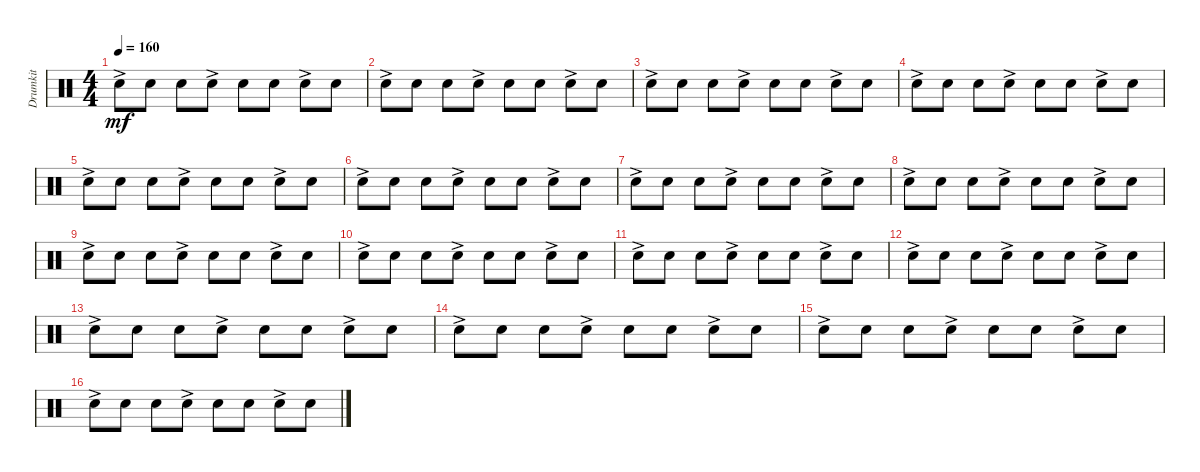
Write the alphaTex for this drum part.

\track ("Drumkit" "Drumkit") {instrument percussion}
\staff {score}
\articulation defaults
\ts (4 4)
\tempo 160
\clef neutral
\ks c "Snare (hit) 2"{ac}.8{dy mf} "Snare (hit) 2".8 "Snare (hit) 2".8 "Snare (hit) 2"{ac}.8 "Snare (hit) 2".8 "Snare (hit) 2".8 "Snare (hit) 2"{ac}.8 "Snare (hit) 2".8
|
"Snare (hit) 2"{ac}.8 "Snare (hit) 2".8 "Snare (hit) 2".8 "Snare (hit) 2"{ac}.8 "Snare (hit) 2".8 "Snare (hit) 2".8 "Snare (hit) 2"{ac}.8 "Snare (hit) 2".8 |
"Snare (hit) 2"{ac}.8 "Snare (hit) 2".8 "Snare (hit) 2".8 "Snare (hit) 2"{ac}.8 "Snare (hit) 2".8 "Snare (hit) 2".8 "Snare (hit) 2"{ac}.8 "Snare (hit) 2".8 |
"Snare (hit) 2"{ac}.8 "Snare (hit) 2".8 "Snare (hit) 2".8 "Snare (hit) 2"{ac}.8 "Snare (hit) 2".8 "Snare (hit) 2".8 "Snare (hit) 2"{ac}.8 "Snare (hit) 2".8 |
"Snare (hit) 2"{ac}.8 "Snare (hit) 2".8 "Snare (hit) 2".8 "Snare (hit) 2"{ac}.8 "Snare (hit) 2".8 "Snare (hit) 2".8 "Snare (hit) 2"{ac}.8 "Snare (hit) 2".8 |
"Snare (hit) 2"{ac}.8 "Snare (hit) 2".8 "Snare (hit) 2".8 "Snare (hit) 2"{ac}.8 "Snare (hit) 2".8 "Snare (hit) 2".8 "Snare (hit) 2"{ac}.8 "Snare (hit) 2".8 |
"Snare (hit) 2"{ac}.8 "Snare (hit) 2".8 "Snare (hit) 2".8 "Snare (hit) 2"{ac}.8 "Snare (hit) 2".8 "Snare (hit) 2".8 "Snare (hit) 2"{ac}.8 "Snare (hit) 2".8 |
"Snare (hit) 2"{ac}.8 "Snare (hit) 2".8 "Snare (hit) 2".8 "Snare (hit) 2"{ac}.8 "Snare (hit) 2".8 "Snare (hit) 2".8 "Snare (hit) 2"{ac}.8 "Snare (hit) 2".8 |
"Snare (hit) 2"{ac}.8 "Snare (hit) 2".8 "Snare (hit) 2".8 "Snare (hit) 2"{ac}.8 "Snare (hit) 2".8 "Snare (hit) 2".8 "Snare (hit) 2"{ac}.8 "Snare (hit) 2".8 |
"Snare (hit) 2"{ac}.8 "Snare (hit) 2".8 "Snare (hit) 2".8 "Snare (hit) 2"{ac}.8 "Snare (hit) 2".8 "Snare (hit) 2".8 "Snare (hit) 2"{ac}.8 "Snare (hit) 2".8 |
"Snare (hit) 2"{ac}.8 "Snare (hit) 2".8 "Snare (hit) 2".8 "Snare (hit) 2"{ac}.8 "Snare (hit) 2".8 "Snare (hit) 2".8 "Snare (hit) 2"{ac}.8 "Snare (hit) 2".8 |
"Snare (hit) 2"{ac}.8 "Snare (hit) 2".8 "Snare (hit) 2".8 "Snare (hit) 2"{ac}.8 "Snare (hit) 2".8 "Snare (hit) 2".8 "Snare (hit) 2"{ac}.8 "Snare (hit) 2".8 |
"Snare (hit) 2"{ac}.8 "Snare (hit) 2".8 "Snare (hit) 2".8 "Snare (hit) 2"{ac}.8 "Snare (hit) 2".8 "Snare (hit) 2".8 "Snare (hit) 2"{ac}.8 "Snare (hit) 2".8 |
"Snare (hit) 2"{ac}.8 "Snare (hit) 2".8 "Snare (hit) 2".8 "Snare (hit) 2"{ac}.8 "Snare (hit) 2".8 "Snare (hit) 2".8 "Snare (hit) 2"{ac}.8 "Snare (hit) 2".8 |
"Snare (hit) 2"{ac}.8 "Snare (hit) 2".8 "Snare (hit) 2".8 "Snare (hit) 2"{ac}.8 "Snare (hit) 2".8 "Snare (hit) 2".8 "Snare (hit) 2"{ac}.8 "Snare (hit) 2".8 |
"Snare (hit) 2"{ac}.8 "Snare (hit) 2".8 "Snare (hit) 2".8 "Snare (hit) 2"{ac}.8 "Snare (hit) 2".8 "Snare (hit) 2".8 "Snare (hit) 2"{ac}.8 "Snare (hit) 2".8
